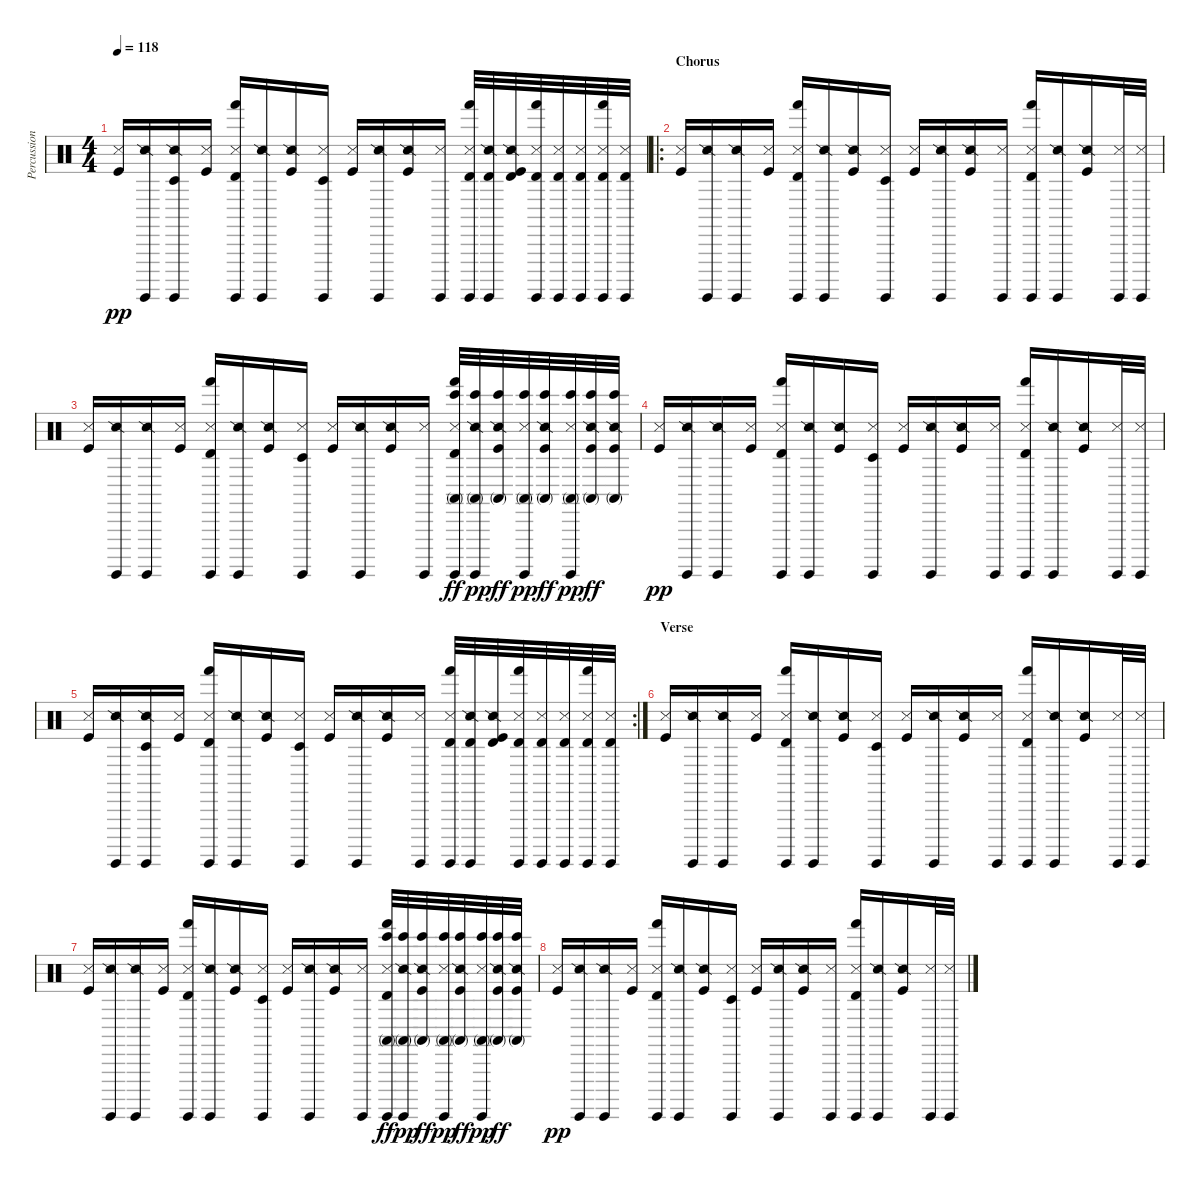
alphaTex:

\track ("Percussion" "Percussion") {instrument percussion}
\staff {score}
\articulation defaults
\ts (4 4)
\tempo 118
\clef neutral
\ks c
("Kick (hit)" "Snare (side stick) 3").16{dy pp} ("Surdo (hit)" "Snare (side stick) 2").16 ("Timbale low (hit)" "Surdo (hit)" "Snare (side stick) 2").16 ("Kick (hit)" "Metronome (hit)").16 ("Timbale high (hit)" "Hand (hit)" "Surdo (hit)" "Snare (side stick) 3").16 ("Surdo (hit)" "Snare (side stick) 2").16 ("Kick (hit)" "Snare (side stick) 2").16 ("Timbale low (hit)" "Surdo (hit)" "Metronome (hit)").16 ("Kick (hit)" "Snare (side stick) 3").16 ("Surdo (hit)" "Snare (side stick) 2").16 ("Kick (hit)" "Snare (side stick) 2").16 ("Surdo (hit)" "Metronome (hit)").16 ("Timbale high (hit)" "Hand (hit)" "Surdo (hit)" "Snare (side stick) 3").32 ("Timbale high (hit)" "Surdo (hit)" "Snare (side stick) 2").32 ("Timbale high (hit)" "Kick (hit)" "Snare (side stick) 2").32 ("Timbale high (hit)" "Hand (hit)" "Surdo (hit)" "Metronome (hit)").32 ("Timbale high (hit)" "Surdo (hit)" "Metronome (hit)").32 ("Timbale high (hit)" "Surdo (hit)" "Metronome (hit)").32 ("Timbale high (hit)" "Hand (hit)" "Surdo (hit)" "Metronome (hit)").32 ("Timbale high (hit)" "Surdo (hit)" "Metronome (hit)").32 |
\ro
\section ("" "Chorus")
("Kick (hit)" "Snare (side stick) 3").16 ("Surdo (hit)" "Snare (side stick) 2").16 ("Surdo (hit)" "Snare (side stick) 2").16 ("Kick (hit)" "Metronome (hit)").16 ("Timbale high (hit)" "Hand (hit)" "Surdo (hit)" "Snare (side stick) 3").16 ("Surdo (hit)" "Snare (side stick) 2").16 ("Kick (hit)" "Snare (side stick) 2").16 ("Timbale low (hit)" "Surdo (hit)" "Metronome (hit)").16 ("Kick (hit)" "Snare (side stick) 3").16 ("Surdo (hit)" "Snare (side stick) 2").16 ("Kick (hit)" "Snare (side stick) 2").16 ("Surdo (hit)" "Metronome (hit)").16 ("Timbale high (hit)" "Hand (hit)" "Surdo (hit)" "Snare (side stick) 3").16 ("Surdo (hit)" "Snare (side stick) 2").16 ("Kick (hit)" "Snare (side stick) 2").16 ("Surdo (hit)" "Metronome (hit)").32 ("Surdo (hit)" "Metronome (hit)").32 |
("Kick (hit)" "Snare (side stick) 3").16 ("Surdo (hit)" "Snare (side stick) 2").16 ("Surdo (hit)" "Snare (side stick) 2").16 ("Kick (hit)" "Metronome (hit)").16 ("Timbale high (hit)" "Hand (hit)" "Surdo (hit)" "Snare (side stick) 3").16 ("Surdo (hit)" "Snare (side stick) 2").16 ("Kick (hit)" "Snare (side stick) 2").16 ("Timbale low (hit)" "Surdo (hit)" "Metronome (hit)").16 ("Kick (hit)" "Snare (side stick) 3").16 ("Surdo (hit)" "Snare (side stick) 2").16 ("Kick (hit)" "Snare (side stick) 2").16 ("Surdo (hit)" "Metronome (hit)").16 ("Timbale high (hit)" "Hand (hit)" "Bongo High (hit)" "Surdo (hit)" "Snare (side stick) 3" "Conga high (mute)").32{dy ff} ("Bongo High (hit)" "Surdo (hit)" "Snare (side stick) 2" "Conga high (mute)").32{dy pp} ("Bongo High (hit)" "Kick (hit)" "Snare (side stick) 2" "Conga high (mute)").32{dy ff} ("Bongo High (hit)" "Surdo (hit)" "Metronome (hit)" "Conga high (mute)").32{dy pp} ("Bongo High (hit)" "Kick (hit)" "Snare (side stick) 2" "Conga high (mute)").32{dy ff} ("Bongo High (hit)" "Surdo (hit)" "Metronome (hit)" "Conga high (mute)").32{dy pp} ("Bongo High (hit)" "Kick (hit)" "Snare (side stick) 2" "Conga high (mute)").32{dy ff} ("Bongo High (hit)" "Kick (hit)" "Snare (side stick) 2" "Conga high (mute)").32 |
("Kick (hit)" "Snare (side stick) 3").16{dy pp} ("Surdo (hit)" "Snare (side stick) 2").16 ("Surdo (hit)" "Snare (side stick) 2").16 ("Kick (hit)" "Metronome (hit)").16 ("Timbale high (hit)" "Hand (hit)" "Surdo (hit)" "Snare (side stick) 3").16 ("Surdo (hit)" "Snare (side stick) 2").16 ("Kick (hit)" "Snare (side stick) 2").16 ("Timbale low (hit)" "Surdo (hit)" "Metronome (hit)").16 ("Kick (hit)" "Snare (side stick) 3").16 ("Surdo (hit)" "Snare (side stick) 2").16 ("Kick (hit)" "Snare (side stick) 2").16 ("Surdo (hit)" "Metronome (hit)").16 ("Timbale high (hit)" "Hand (hit)" "Surdo (hit)" "Snare (side stick) 3").16 ("Surdo (hit)" "Snare (side stick) 2").16 ("Kick (hit)" "Snare (side stick) 2").16 ("Surdo (hit)" "Metronome (hit)").32 ("Surdo (hit)" "Metronome (hit)").32 |
\rc 2
("Kick (hit)" "Snare (side stick) 3").16 ("Surdo (hit)" "Snare (side stick) 2").16 ("Timbale low (hit)" "Surdo (hit)" "Snare (side stick) 2").16 ("Kick (hit)" "Metronome (hit)").16 ("Timbale high (hit)" "Hand (hit)" "Surdo (hit)" "Snare (side stick) 3").16 ("Surdo (hit)" "Snare (side stick) 2").16 ("Kick (hit)" "Snare (side stick) 2").16 ("Timbale low (hit)" "Surdo (hit)" "Metronome (hit)").16 ("Kick (hit)" "Snare (side stick) 3").16 ("Surdo (hit)" "Snare (side stick) 2").16 ("Kick (hit)" "Snare (side stick) 2").16 ("Surdo (hit)" "Metronome (hit)").16 ("Timbale high (hit)" "Hand (hit)" "Surdo (hit)" "Snare (side stick) 3").32 ("Timbale high (hit)" "Surdo (hit)" "Snare (side stick) 2").32 ("Timbale high (hit)" "Kick (hit)" "Snare (side stick) 2").32 ("Timbale high (hit)" "Hand (hit)" "Surdo (hit)" "Metronome (hit)").32 ("Timbale high (hit)" "Surdo (hit)" "Metronome (hit)").32 ("Timbale high (hit)" "Surdo (hit)" "Metronome (hit)").32 ("Timbale high (hit)" "Hand (hit)" "Surdo (hit)" "Metronome (hit)").32 ("Timbale high (hit)" "Surdo (hit)" "Metronome (hit)").32 |
\section ("" "Verse")
("Kick (hit)" "Snare (side stick) 3").16 ("Surdo (hit)" "Snare (side stick) 2").16 ("Surdo (hit)" "Snare (side stick) 2").16 ("Kick (hit)" "Metronome (hit)").16 ("Timbale high (hit)" "Hand (hit)" "Surdo (hit)" "Snare (side stick) 3").16 ("Surdo (hit)" "Snare (side stick) 2").16 ("Kick (hit)" "Snare (side stick) 2").16 ("Timbale low (hit)" "Surdo (hit)" "Metronome (hit)").16 ("Kick (hit)" "Snare (side stick) 3").16 ("Surdo (hit)" "Snare (side stick) 2").16 ("Kick (hit)" "Snare (side stick) 2").16 ("Surdo (hit)" "Metronome (hit)").16 ("Timbale high (hit)" "Hand (hit)" "Surdo (hit)" "Snare (side stick) 3").16 ("Surdo (hit)" "Snare (side stick) 2").16 ("Kick (hit)" "Snare (side stick) 2").16 ("Surdo (hit)" "Metronome (hit)").32 ("Surdo (hit)" "Metronome (hit)").32 |
("Kick (hit)" "Snare (side stick) 3").16 ("Surdo (hit)" "Snare (side stick) 2").16 ("Surdo (hit)" "Snare (side stick) 2").16 ("Kick (hit)" "Metronome (hit)").16 ("Timbale high (hit)" "Hand (hit)" "Surdo (hit)" "Snare (side stick) 3").16 ("Surdo (hit)" "Snare (side stick) 2").16 ("Kick (hit)" "Snare (side stick) 2").16 ("Timbale low (hit)" "Surdo (hit)" "Metronome (hit)").16 ("Kick (hit)" "Snare (side stick) 3").16 ("Surdo (hit)" "Snare (side stick) 2").16 ("Kick (hit)" "Snare (side stick) 2").16 ("Surdo (hit)" "Metronome (hit)").16 ("Timbale high (hit)" "Hand (hit)" "Bongo High (hit)" "Surdo (hit)" "Snare (side stick) 3" "Conga high (mute)").32{dy ff} ("Bongo High (hit)" "Surdo (hit)" "Snare (side stick) 2" "Conga high (mute)").32{dy pp} ("Bongo High (hit)" "Kick (hit)" "Snare (side stick) 2" "Conga high (mute)").32{dy ff} ("Bongo High (hit)" "Surdo (hit)" "Metronome (hit)" "Conga high (mute)").32{dy pp} ("Bongo High (hit)" "Kick (hit)" "Snare (side stick) 2" "Conga high (mute)").32{dy ff} ("Bongo High (hit)" "Surdo (hit)" "Metronome (hit)" "Conga high (mute)").32{dy pp} ("Bongo High (hit)" "Kick (hit)" "Snare (side stick) 2" "Conga high (mute)").32{dy ff} ("Bongo High (hit)" "Kick (hit)" "Snare (side stick) 2" "Conga high (mute)").32 |
("Kick (hit)" "Snare (side stick) 3").16{dy pp} ("Surdo (hit)" "Snare (side stick) 2").16 ("Surdo (hit)" "Snare (side stick) 2").16 ("Kick (hit)" "Metronome (hit)").16 ("Timbale high (hit)" "Hand (hit)" "Surdo (hit)" "Snare (side stick) 3").16 ("Surdo (hit)" "Snare (side stick) 2").16 ("Kick (hit)" "Snare (side stick) 2").16 ("Timbale low (hit)" "Surdo (hit)" "Metronome (hit)").16 ("Kick (hit)" "Snare (side stick) 3").16 ("Surdo (hit)" "Snare (side stick) 2").16 ("Kick (hit)" "Snare (side stick) 2").16 ("Surdo (hit)" "Metronome (hit)").16 ("Timbale high (hit)" "Hand (hit)" "Surdo (hit)" "Snare (side stick) 3").16 ("Surdo (hit)" "Snare (side stick) 2").16 ("Kick (hit)" "Snare (side stick) 2").16 ("Surdo (hit)" "Metronome (hit)").32 ("Surdo (hit)" "Metronome (hit)").32
